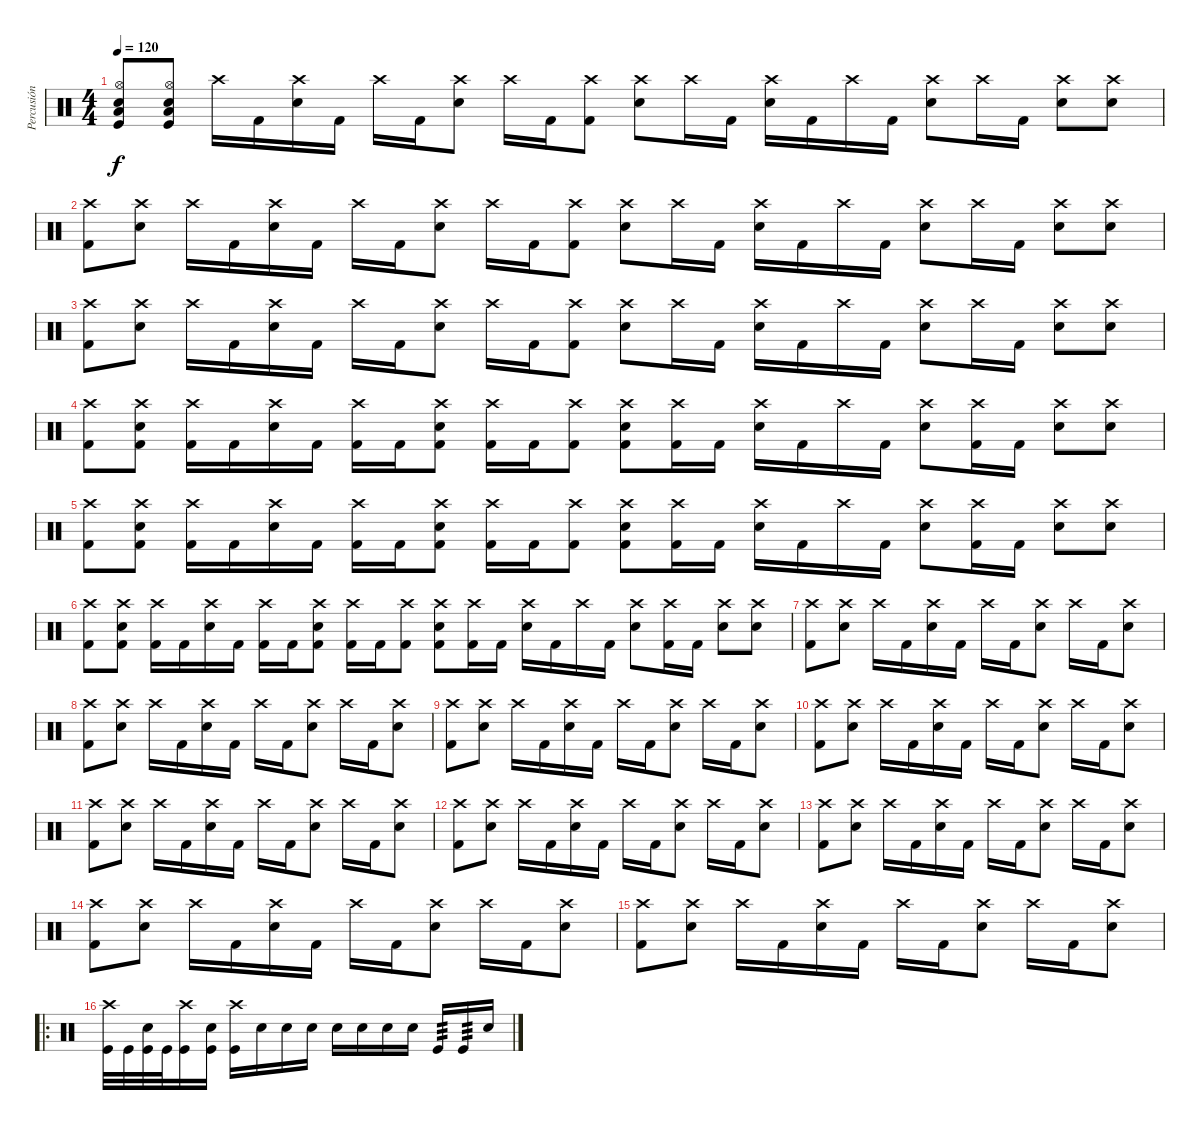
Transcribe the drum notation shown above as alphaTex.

\track ("Percusión" "Percusión") {instrument percussion}
\staff {score}
\articulation defaults
\ts (4 4)
\tempo 120
\clef neutral
\ks c
("Low Tom (hit)" "Hi-Hat (open)" "Electric Snare (hit)" "Kick (hit)").8{dy f} ("Low Tom (hit)" "Hi-Hat (open)" "Electric Snare (hit)" "Kick (hit)").8 "Crash high (hit)".16 "Kick (hit) 2".16 ("Crash high (hit)" "Electric Snare (hit)").16 "Kick (hit) 2".16 "Crash high (hit)".16 "Kick (hit) 2".16 ("Crash high (hit)" "Electric Snare (hit)").8 "Crash high (hit)".16 "Kick (hit) 2".16 ("Crash high (hit)" "Kick (hit) 2").8 ("Crash high (hit)" "Electric Snare (hit)").8 "Crash high (hit)".16 "Kick (hit) 2".16 ("Crash high (hit)" "Electric Snare (hit)").16 "Kick (hit) 2".16 "Crash high (hit)".16 "Kick (hit) 2".16 ("Crash high (hit)" "Electric Snare (hit)").8 "Crash high (hit)".16 "Kick (hit) 2".16 ("Crash high (hit)" "Electric Snare (hit)").8 ("Crash high (hit)" "Electric Snare (hit)").8 |
("Crash high (hit)" "Kick (hit) 2").8 ("Crash high (hit)" "Electric Snare (hit)").8 "Crash high (hit)".16 "Kick (hit) 2".16 ("Crash high (hit)" "Electric Snare (hit)").16 "Kick (hit) 2".16 "Crash high (hit)".16 "Kick (hit) 2".16 ("Crash high (hit)" "Electric Snare (hit)").8 "Crash high (hit)".16 "Kick (hit) 2".16 ("Crash high (hit)" "Kick (hit) 2").8 ("Crash high (hit)" "Electric Snare (hit)").8 "Crash high (hit)".16 "Kick (hit) 2".16 ("Crash high (hit)" "Electric Snare (hit)").16 "Kick (hit) 2".16 "Crash high (hit)".16 "Kick (hit) 2".16 ("Crash high (hit)" "Electric Snare (hit)").8 "Crash high (hit)".16 "Kick (hit) 2".16 ("Crash high (hit)" "Electric Snare (hit)").8 ("Crash high (hit)" "Electric Snare (hit)").8 |
("Crash high (hit)" "Kick (hit) 2").8 ("Crash high (hit)" "Electric Snare (hit)").8 "Crash high (hit)".16 "Kick (hit) 2".16 ("Crash high (hit)" "Electric Snare (hit)").16 "Kick (hit) 2".16 "Crash high (hit)".16 "Kick (hit) 2".16 ("Crash high (hit)" "Electric Snare (hit)").8 "Crash high (hit)".16 "Kick (hit) 2".16 ("Crash high (hit)" "Kick (hit) 2").8 ("Crash high (hit)" "Electric Snare (hit)").8 "Crash high (hit)".16 "Kick (hit) 2".16 ("Crash high (hit)" "Electric Snare (hit)").16 "Kick (hit) 2".16 "Crash high (hit)".16 "Kick (hit) 2".16 ("Crash high (hit)" "Electric Snare (hit)").8 "Crash high (hit)".16 "Kick (hit) 2".16 ("Crash high (hit)" "Electric Snare (hit)").8 ("Crash high (hit)" "Electric Snare (hit)").8 |
("Crash high (hit)" "Kick (hit) 2").8 ("Crash high (hit)" "Electric Snare (hit)" "Kick (hit) 2").8 ("Crash high (hit)" "Kick (hit) 2").16 "Kick (hit) 2".16 ("Crash high (hit)" "Electric Snare (hit)").16 "Kick (hit) 2".16 ("Crash high (hit)" "Kick (hit) 2").16 "Kick (hit) 2".16 ("Crash high (hit)" "Electric Snare (hit)" "Kick (hit) 2").8 ("Crash high (hit)" "Kick (hit) 2").16 "Kick (hit) 2".16 ("Crash high (hit)" "Kick (hit) 2").8 ("Crash high (hit)" "Electric Snare (hit)" "Kick (hit) 2").8 ("Crash high (hit)" "Kick (hit) 2").16 "Kick (hit) 2".16 ("Crash high (hit)" "Electric Snare (hit)").16 "Kick (hit) 2".16 "Crash high (hit)".16 "Kick (hit) 2".16 ("Crash high (hit)" "Electric Snare (hit)").8 ("Crash high (hit)" "Kick (hit) 2").16 "Kick (hit) 2".16 ("Crash high (hit)" "Electric Snare (hit)").8 ("Crash high (hit)" "Electric Snare (hit)").8 |
("Crash high (hit)" "Kick (hit) 2").8 ("Crash high (hit)" "Electric Snare (hit)" "Kick (hit) 2").8 ("Crash high (hit)" "Kick (hit) 2").16 "Kick (hit) 2".16 ("Crash high (hit)" "Electric Snare (hit)").16 "Kick (hit) 2".16 ("Crash high (hit)" "Kick (hit) 2").16 "Kick (hit) 2".16 ("Crash high (hit)" "Electric Snare (hit)" "Kick (hit) 2").8 ("Crash high (hit)" "Kick (hit) 2").16 "Kick (hit) 2".16 ("Crash high (hit)" "Kick (hit) 2").8 ("Crash high (hit)" "Electric Snare (hit)" "Kick (hit) 2").8 ("Crash high (hit)" "Kick (hit) 2").16 "Kick (hit) 2".16 ("Crash high (hit)" "Electric Snare (hit)").16 "Kick (hit) 2".16 "Crash high (hit)".16 "Kick (hit) 2".16 ("Crash high (hit)" "Electric Snare (hit)").8 ("Crash high (hit)" "Kick (hit) 2").16 "Kick (hit) 2".16 ("Crash high (hit)" "Electric Snare (hit)").8 ("Crash high (hit)" "Electric Snare (hit)").8 |
("Crash high (hit)" "Kick (hit) 2").8 ("Crash high (hit)" "Electric Snare (hit)" "Kick (hit) 2").8 ("Crash high (hit)" "Kick (hit) 2").16 "Kick (hit) 2".16 ("Crash high (hit)" "Electric Snare (hit)").16 "Kick (hit) 2".16 ("Crash high (hit)" "Kick (hit) 2").16 "Kick (hit) 2".16 ("Crash high (hit)" "Electric Snare (hit)" "Kick (hit) 2").8 ("Crash high (hit)" "Kick (hit) 2").16 "Kick (hit) 2".16 ("Crash high (hit)" "Kick (hit) 2").8 ("Crash high (hit)" "Electric Snare (hit)" "Kick (hit) 2").8 ("Crash high (hit)" "Kick (hit) 2").16 "Kick (hit) 2".16 ("Crash high (hit)" "Electric Snare (hit)").16 "Kick (hit) 2".16 "Crash high (hit)".16 "Kick (hit) 2".16 ("Crash high (hit)" "Electric Snare (hit)").8 ("Crash high (hit)" "Kick (hit) 2").16 "Kick (hit) 2".16 ("Crash high (hit)" "Electric Snare (hit)").8 ("Crash high (hit)" "Electric Snare (hit)").8 |
("Crash high (hit)" "Kick (hit) 2").8 ("Crash high (hit)" "Electric Snare (hit)").8 "Crash high (hit)".16 "Kick (hit) 2".16 ("Crash high (hit)" "Electric Snare (hit)").16 "Kick (hit) 2".16 "Crash high (hit)".16 "Kick (hit) 2".16 ("Crash high (hit)" "Electric Snare (hit)").8 "Crash high (hit)".16 "Kick (hit) 2".16 ("Crash high (hit)" "Electric Snare (hit)").8 |
("Crash high (hit)" "Kick (hit) 2").8 ("Crash high (hit)" "Electric Snare (hit)").8 "Crash high (hit)".16 "Kick (hit) 2".16 ("Crash high (hit)" "Electric Snare (hit)").16 "Kick (hit) 2".16 "Crash high (hit)".16 "Kick (hit) 2".16 ("Crash high (hit)" "Electric Snare (hit)").8 "Crash high (hit)".16 "Kick (hit) 2".16 ("Crash high (hit)" "Electric Snare (hit)").8 |
("Crash high (hit)" "Kick (hit) 2").8 ("Crash high (hit)" "Electric Snare (hit)").8 "Crash high (hit)".16 "Kick (hit) 2".16 ("Crash high (hit)" "Electric Snare (hit)").16 "Kick (hit) 2".16 "Crash high (hit)".16 "Kick (hit) 2".16 ("Crash high (hit)" "Electric Snare (hit)").8 "Crash high (hit)".16 "Kick (hit) 2".16 ("Crash high (hit)" "Electric Snare (hit)").8 |
("Crash high (hit)" "Kick (hit) 2").8 ("Crash high (hit)" "Electric Snare (hit)").8 "Crash high (hit)".16 "Kick (hit) 2".16 ("Crash high (hit)" "Electric Snare (hit)").16 "Kick (hit) 2".16 "Crash high (hit)".16 "Kick (hit) 2".16 ("Crash high (hit)" "Electric Snare (hit)").8 "Crash high (hit)".16 "Kick (hit) 2".16 ("Crash high (hit)" "Electric Snare (hit)").8 |
("Crash high (hit)" "Kick (hit) 2").8 ("Crash high (hit)" "Electric Snare (hit)").8 "Crash high (hit)".16 "Kick (hit) 2".16 ("Crash high (hit)" "Electric Snare (hit)").16 "Kick (hit) 2".16 "Crash high (hit)".16 "Kick (hit) 2".16 ("Crash high (hit)" "Electric Snare (hit)").8 "Crash high (hit)".16 "Kick (hit) 2".16 ("Crash high (hit)" "Electric Snare (hit)").8 |
("Crash high (hit)" "Kick (hit) 2").8 ("Crash high (hit)" "Electric Snare (hit)").8 "Crash high (hit)".16 "Kick (hit) 2".16 ("Crash high (hit)" "Electric Snare (hit)").16 "Kick (hit) 2".16 "Crash high (hit)".16 "Kick (hit) 2".16 ("Crash high (hit)" "Electric Snare (hit)").8 "Crash high (hit)".16 "Kick (hit) 2".16 ("Crash high (hit)" "Electric Snare (hit)").8 |
("Crash high (hit)" "Kick (hit) 2").8 ("Crash high (hit)" "Electric Snare (hit)").8 "Crash high (hit)".16 "Kick (hit) 2".16 ("Crash high (hit)" "Electric Snare (hit)").16 "Kick (hit) 2".16 "Crash high (hit)".16 "Kick (hit) 2".16 ("Crash high (hit)" "Electric Snare (hit)").8 "Crash high (hit)".16 "Kick (hit) 2".16 ("Crash high (hit)" "Electric Snare (hit)").8 |
("Crash high (hit)" "Kick (hit) 2").8 ("Crash high (hit)" "Electric Snare (hit)").8 "Crash high (hit)".16 "Kick (hit) 2".16 ("Crash high (hit)" "Electric Snare (hit)").16 "Kick (hit) 2".16 "Crash high (hit)".16 "Kick (hit) 2".16 ("Crash high (hit)" "Electric Snare (hit)").8 "Crash high (hit)".16 "Kick (hit) 2".16 ("Crash high (hit)" "Electric Snare (hit)").8 |
("Crash high (hit)" "Kick (hit) 2").8 ("Crash high (hit)" "Electric Snare (hit)").8 "Crash high (hit)".16 "Kick (hit) 2".16 ("Crash high (hit)" "Electric Snare (hit)").16 "Kick (hit) 2".16 "Crash high (hit)".16 "Kick (hit) 2".16 ("Crash high (hit)" "Electric Snare (hit)").8 "Crash high (hit)".16 "Kick (hit) 2".16 ("Crash high (hit)" "Electric Snare (hit)").8 |
\ro
("Crash high (hit)" "Kick (hit)").32 "Kick (hit)".32 ("Electric Snare (hit)" "Kick (hit)").32 "Kick (hit)".32 ("Crash high (hit)" "Kick (hit)").16 ("Electric Snare (hit)" "Kick (hit)").16 ("Crash high (hit)" "Kick (hit)").16 "Snare (hit)".16 "Snare (hit)".16 "Snare (hit)".16 "Snare (hit)".16 "Snare (hit)".16 "Snare (hit)".16 "Snare (hit)".16 "Kick (hit)".16{tp 3} "Kick (hit)".16{tp 3} "Electric Snare (hit)".16
